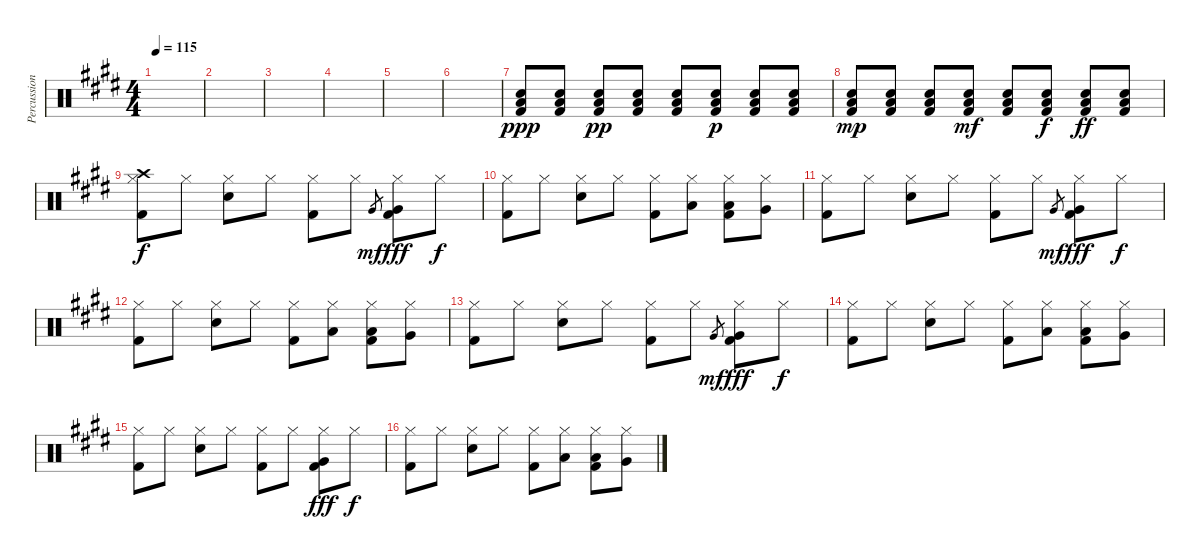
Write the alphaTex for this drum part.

\track ("Percussion" "Percussion") {instrument percussion}
\staff {score}
\articulation defaults
\ts (4 4)
\tempo 115
\clef neutral
\ks c#minor
|
|
|
|
|
|
("Low Floor Tom (hit)" "Electric Snare (hit)" "Kick (hit) 2").8{dy ppp} ("Low Floor Tom (hit)" "Electric Snare (hit)" "Kick (hit) 2").8 ("Low Floor Tom (hit)" "Electric Snare (hit)" "Kick (hit) 2").8{dy pp} ("Low Floor Tom (hit)" "Electric Snare (hit)" "Kick (hit) 2").8 ("Low Floor Tom (hit)" "Electric Snare (hit)" "Kick (hit) 2").8 ("Low Floor Tom (hit)" "Electric Snare (hit)" "Kick (hit) 2").8{dy p} ("Low Floor Tom (hit)" "Electric Snare (hit)" "Kick (hit) 2").8 ("Low Floor Tom (hit)" "Electric Snare (hit)" "Kick (hit) 2").8 |
("Low Floor Tom (hit)" "Electric Snare (hit)" "Kick (hit) 2").8{dy mp} ("Low Floor Tom (hit)" "Electric Snare (hit)" "Kick (hit) 2").8 ("Low Floor Tom (hit)" "Electric Snare (hit)" "Kick (hit) 2").8 ("Low Floor Tom (hit)" "Electric Snare (hit)" "Kick (hit) 2").8{dy mf} ("Low Floor Tom (hit)" "Electric Snare (hit)" "Kick (hit) 2").8 ("Low Floor Tom (hit)" "Electric Snare (hit)" "Kick (hit) 2").8{dy f} ("Low Floor Tom (hit)" "Electric Snare (hit)" "Kick (hit) 2").8{dy ff} ("Low Floor Tom (hit)" "Electric Snare (hit)" "Kick (hit) 2").8 |
("Crash high (hit)" "Hi-Hat (closed)" "Kick (hit) 2").8{dy f} "Hi-Hat (closed)".8 ("Hi-Hat (closed)" "Electric Snare (hit)").8 "Hi-Hat (closed)".8 ("Hi-Hat (closed)" "Kick (hit) 2").8 "Hi-Hat (closed)".8 "Very Low Tom (hit)".8{gr dy mf} ("Hi-Hat (closed)" "Very Low Tom (hit)" "Kick (hit) 2").8{dy fff} "Hi-Hat (closed)".8{dy f} |
("Hi-Hat (closed)" "Kick (hit) 2").8 "Hi-Hat (closed)".8 ("Hi-Hat (closed)" "Electric Snare (hit)").8 "Hi-Hat (closed)".8 ("Hi-Hat (closed)" "Kick (hit) 2").8 ("Hi-Hat (closed)" "Low Tom (hit)").8 ("Hi-Hat (closed)" "Low Floor Tom (hit)" "Kick (hit) 2").8 ("Hi-Hat (closed)" "Very Low Tom (hit)").8 |
("Hi-Hat (closed)" "Kick (hit) 2").8 "Hi-Hat (closed)".8 ("Hi-Hat (closed)" "Electric Snare (hit)").8 "Hi-Hat (closed)".8 ("Hi-Hat (closed)" "Kick (hit) 2").8 "Hi-Hat (closed)".8 "Very Low Tom (hit)".8{gr dy mf} ("Hi-Hat (closed)" "Very Low Tom (hit)" "Kick (hit) 2").8{dy fff} "Hi-Hat (closed)".8{dy f} |
("Hi-Hat (closed)" "Kick (hit) 2").8 "Hi-Hat (closed)".8 ("Hi-Hat (closed)" "Electric Snare (hit)").8 "Hi-Hat (closed)".8 ("Hi-Hat (closed)" "Kick (hit) 2").8 ("Hi-Hat (closed)" "Low Tom (hit)").8 ("Hi-Hat (closed)" "Low Floor Tom (hit)" "Kick (hit) 2").8 ("Hi-Hat (closed)" "Very Low Tom (hit)").8 |
("Hi-Hat (closed)" "Kick (hit) 2").8 "Hi-Hat (closed)".8 ("Hi-Hat (closed)" "Electric Snare (hit)").8 "Hi-Hat (closed)".8 ("Hi-Hat (closed)" "Kick (hit) 2").8 "Hi-Hat (closed)".8 "Very Low Tom (hit)".8{gr dy mf} ("Hi-Hat (closed)" "Very Low Tom (hit)" "Kick (hit) 2").8{dy fff} "Hi-Hat (closed)".8{dy f} |
("Hi-Hat (closed)" "Kick (hit) 2").8 "Hi-Hat (closed)".8 ("Hi-Hat (closed)" "Electric Snare (hit)").8 "Hi-Hat (closed)".8 ("Hi-Hat (closed)" "Kick (hit) 2").8 ("Hi-Hat (closed)" "Low Tom (hit)").8 ("Hi-Hat (closed)" "Low Floor Tom (hit)" "Kick (hit) 2").8 ("Hi-Hat (closed)" "Very Low Tom (hit)").8 |
("Hi-Hat (closed)" "Kick (hit) 2").8 "Hi-Hat (closed)".8 ("Hi-Hat (closed)" "Electric Snare (hit)").8 "Hi-Hat (closed)".8 ("Hi-Hat (closed)" "Kick (hit) 2").8 "Hi-Hat (closed)".8 ("Hi-Hat (closed)" "Very Low Tom (hit)" "Kick (hit) 2").8{dy fff} "Hi-Hat (closed)".8{dy f} |
("Hi-Hat (closed)" "Kick (hit) 2").8 "Hi-Hat (closed)".8 ("Hi-Hat (closed)" "Electric Snare (hit)").8 "Hi-Hat (closed)".8 ("Hi-Hat (closed)" "Kick (hit) 2").8 ("Hi-Hat (closed)" "Low Tom (hit)").8 ("Hi-Hat (closed)" "Low Floor Tom (hit)" "Kick (hit) 2").8 ("Hi-Hat (closed)" "Very Low Tom (hit)").8
